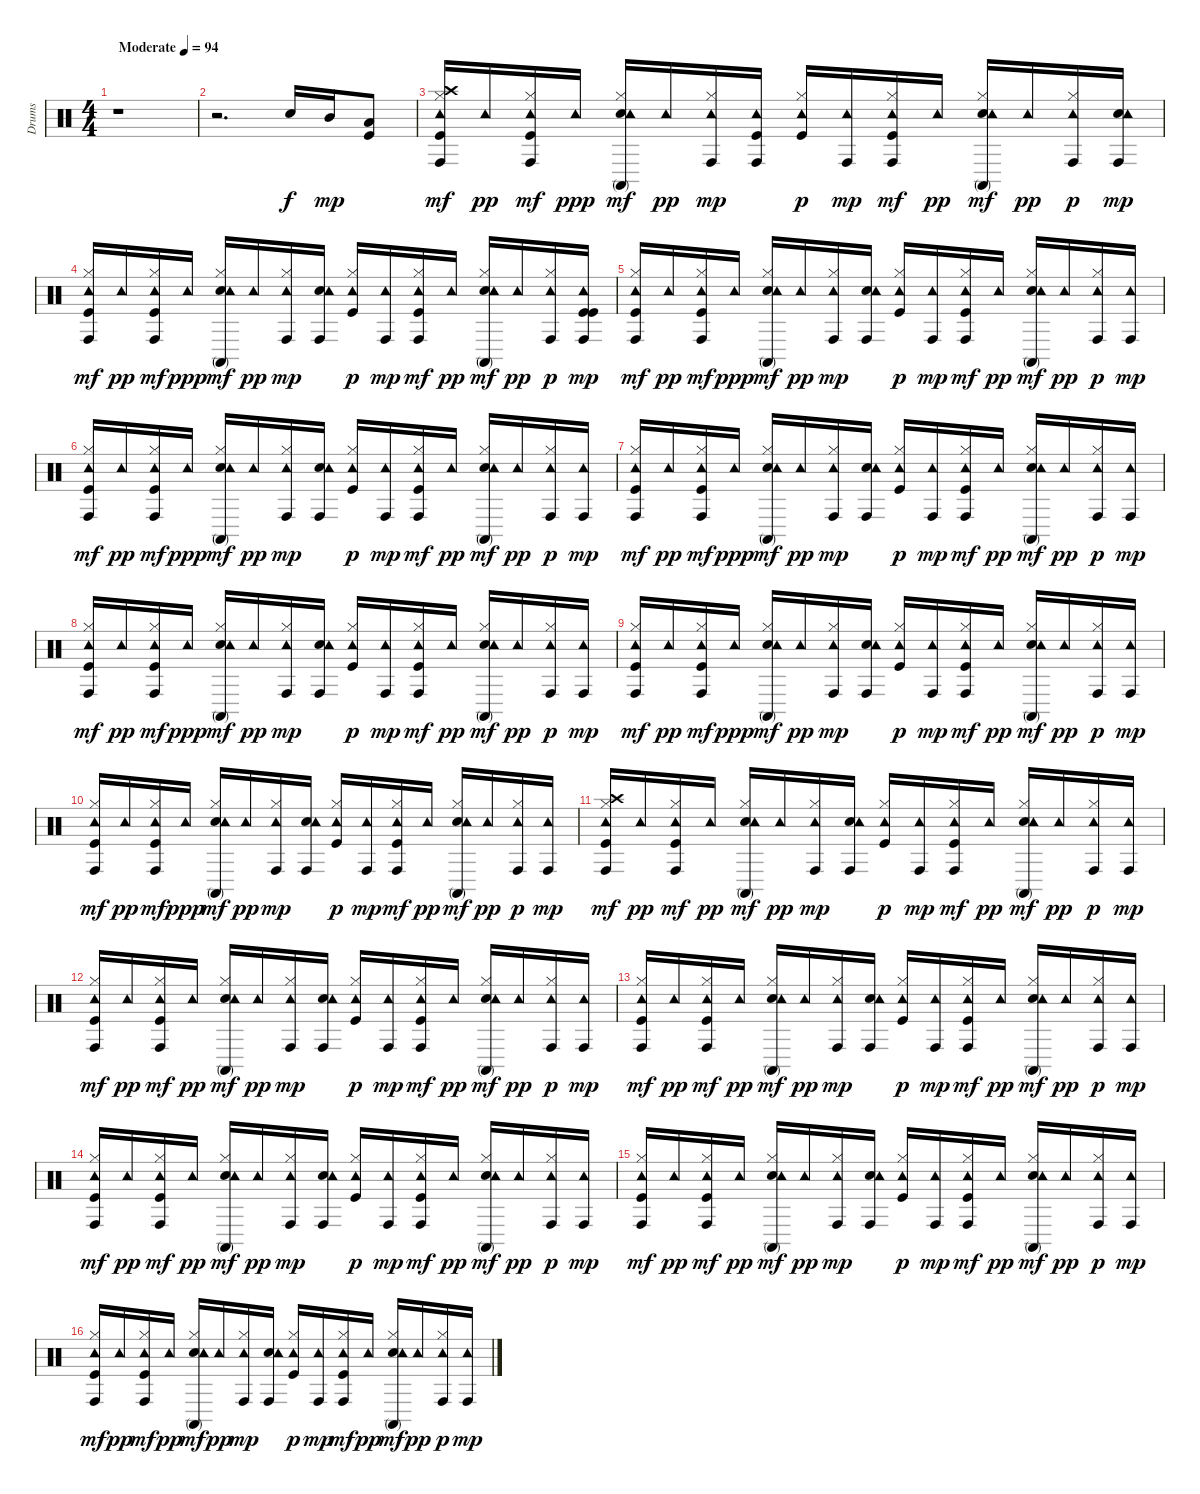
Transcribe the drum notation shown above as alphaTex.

\track ("Drums" "Drums") {instrument percussion}
\staff {score}
\articulation defaults
\ts (4 4)
\tempo (94 "Moderate")
\clef neutral
\ks c
r.1{dy f} |
r.2{d} "Electric Snare (hit)".16 "Mid Tom (hit)".16{dy mp} ("Kick (hit)" "Low Tom (hit)").8 |
("Kick (hit)" "Hi-Hat (closed)" "Crash high (hit)" "Tambourine (hit)" "Conga high (hit)").16{dy mf} "Tambourine (hit)".16{dy pp} ("Kick (hit)" "Hi-Hat (closed)" "Tambourine (hit)" "Conga high (hit)").16{dy mf} "Tambourine (hit)".16{dy ppp} ("Electric Snare (hit)" "Hi-Hat (closed)" "Tambourine (hit)" "Conga high (mute)").16{dy mf} "Tambourine (hit)".16{dy pp} ("Hi-Hat (closed)" "Tambourine (hit)" "Conga high (hit)").16{dy mp} ("Kick (hit)" "Tambourine (hit)" "Conga high (hit)").16 ("Kick (hit)" "Hi-Hat (closed)" "Tambourine (hit)").16{dy p} ("Tambourine (hit)" "Conga high (hit)").16{dy mp} ("Kick (hit)" "Hi-Hat (closed)" "Tambourine (hit)" "Conga high (hit)").16{dy mf} "Tambourine (hit)".16{dy pp} ("Electric Snare (hit)" "Hi-Hat (closed)" "Tambourine (hit)" "Conga high (mute)").16{dy mf} "Tambourine (hit)".16{dy pp} ("Hi-Hat (closed)" "Tambourine (hit)" "Conga high (hit)").16{dy p} ("Electric Snare (hit)" "Tambourine (hit)" "Conga high (hit)").16{dy mp} |
("Kick (hit)" "Hi-Hat (closed)" "Tambourine (hit)" "Conga high (hit)").16{dy mf} "Tambourine (hit)".16{dy pp} ("Kick (hit)" "Hi-Hat (closed)" "Tambourine (hit)" "Conga high (hit)").16{dy mf} "Tambourine (hit)".16{dy ppp} ("Electric Snare (hit)" "Hi-Hat (closed)" "Tambourine (hit)" "Conga high (mute)").16{dy mf} "Tambourine (hit)".16{dy pp} ("Hi-Hat (closed)" "Tambourine (hit)" "Conga high (hit)").16{dy mp} ("Electric Snare (hit)" "Tambourine (hit)" "Conga high (hit)").16 ("Kick (hit)" "Hi-Hat (closed)" "Tambourine (hit)").16{dy p} ("Tambourine (hit)" "Conga high (hit)").16{dy mp} ("Kick (hit)" "Hi-Hat (closed)" "Tambourine (hit)" "Conga high (hit)").16{dy mf} "Tambourine (hit)".16{dy pp} ("Electric Snare (hit)" "Hi-Hat (closed)" "Tambourine (hit)" "Conga high (mute)").16{dy mf} "Tambourine (hit)".16{dy pp} ("Hi-Hat (closed)" "Tambourine (hit)" "Conga high (hit)").16{dy p} ("Kick (hit)" "Kick (hit)" "Tambourine (hit)" "Conga high (hit)").16{dy mp} |
("Kick (hit)" "Hi-Hat (closed)" "Tambourine (hit)" "Conga high (hit)").16{dy mf} "Tambourine (hit)".16{dy pp} ("Kick (hit)" "Hi-Hat (closed)" "Tambourine (hit)" "Conga high (hit)").16{dy mf} "Tambourine (hit)".16{dy ppp} ("Electric Snare (hit)" "Hi-Hat (closed)" "Tambourine (hit)" "Conga high (mute)").16{dy mf} "Tambourine (hit)".16{dy pp} ("Hi-Hat (closed)" "Tambourine (hit)" "Conga high (hit)").16{dy mp} ("Electric Snare (hit)" "Tambourine (hit)" "Conga high (hit)").16 ("Kick (hit)" "Hi-Hat (closed)" "Tambourine (hit)").16{dy p} ("Tambourine (hit)" "Conga high (hit)").16{dy mp} ("Kick (hit)" "Hi-Hat (closed)" "Tambourine (hit)" "Conga high (hit)").16{dy mf} "Tambourine (hit)".16{dy pp} ("Electric Snare (hit)" "Hi-Hat (closed)" "Tambourine (hit)" "Conga high (mute)").16{dy mf} "Tambourine (hit)".16{dy pp} ("Hi-Hat (closed)" "Tambourine (hit)" "Conga high (hit)").16{dy p} ("Tambourine (hit)" "Conga high (hit)").16{dy mp} |
("Kick (hit)" "Hi-Hat (closed)" "Tambourine (hit)" "Conga high (hit)").16{dy mf} "Tambourine (hit)".16{dy pp} ("Kick (hit)" "Hi-Hat (closed)" "Tambourine (hit)" "Conga high (hit)").16{dy mf} "Tambourine (hit)".16{dy ppp} ("Electric Snare (hit)" "Hi-Hat (closed)" "Tambourine (hit)" "Conga high (mute)").16{dy mf} "Tambourine (hit)".16{dy pp} ("Hi-Hat (closed)" "Tambourine (hit)" "Conga high (hit)").16{dy mp} ("Electric Snare (hit)" "Tambourine (hit)" "Conga high (hit)").16 ("Kick (hit)" "Hi-Hat (closed)" "Tambourine (hit)").16{dy p} ("Tambourine (hit)" "Conga high (hit)").16{dy mp} ("Kick (hit)" "Hi-Hat (closed)" "Tambourine (hit)" "Conga high (hit)").16{dy mf} "Tambourine (hit)".16{dy pp} ("Electric Snare (hit)" "Hi-Hat (closed)" "Tambourine (hit)" "Conga high (mute)").16{dy mf} "Tambourine (hit)".16{dy pp} ("Hi-Hat (closed)" "Tambourine (hit)" "Conga high (hit)").16{dy p} ("Tambourine (hit)" "Conga high (hit)").16{dy mp} |
("Kick (hit)" "Hi-Hat (closed)" "Tambourine (hit)" "Conga high (hit)").16{dy mf} "Tambourine (hit)".16{dy pp} ("Kick (hit)" "Hi-Hat (closed)" "Tambourine (hit)" "Conga high (hit)").16{dy mf} "Tambourine (hit)".16{dy ppp} ("Electric Snare (hit)" "Hi-Hat (closed)" "Tambourine (hit)" "Conga high (mute)").16{dy mf} "Tambourine (hit)".16{dy pp} ("Hi-Hat (closed)" "Tambourine (hit)" "Conga high (hit)").16{dy mp} ("Electric Snare (hit)" "Tambourine (hit)" "Conga high (hit)").16 ("Kick (hit)" "Hi-Hat (closed)" "Tambourine (hit)").16{dy p} ("Tambourine (hit)" "Conga high (hit)").16{dy mp} ("Kick (hit)" "Hi-Hat (closed)" "Tambourine (hit)" "Conga high (hit)").16{dy mf} "Tambourine (hit)".16{dy pp} ("Electric Snare (hit)" "Hi-Hat (closed)" "Tambourine (hit)" "Conga high (mute)").16{dy mf} "Tambourine (hit)".16{dy pp} ("Hi-Hat (closed)" "Tambourine (hit)" "Conga high (hit)").16{dy p} ("Tambourine (hit)" "Conga high (hit)").16{dy mp} |
("Kick (hit)" "Hi-Hat (closed)" "Tambourine (hit)" "Conga high (hit)").16{dy mf} "Tambourine (hit)".16{dy pp} ("Kick (hit)" "Hi-Hat (closed)" "Tambourine (hit)" "Conga high (hit)").16{dy mf} "Tambourine (hit)".16{dy ppp} ("Electric Snare (hit)" "Hi-Hat (closed)" "Tambourine (hit)" "Conga high (mute)").16{dy mf} "Tambourine (hit)".16{dy pp} ("Hi-Hat (closed)" "Tambourine (hit)" "Conga high (hit)").16{dy mp} ("Electric Snare (hit)" "Tambourine (hit)" "Conga high (hit)").16 ("Kick (hit)" "Hi-Hat (closed)" "Tambourine (hit)").16{dy p} ("Tambourine (hit)" "Conga high (hit)").16{dy mp} ("Kick (hit)" "Hi-Hat (closed)" "Tambourine (hit)" "Conga high (hit)").16{dy mf} "Tambourine (hit)".16{dy pp} ("Electric Snare (hit)" "Hi-Hat (closed)" "Tambourine (hit)" "Conga high (mute)").16{dy mf} "Tambourine (hit)".16{dy pp} ("Hi-Hat (closed)" "Tambourine (hit)" "Conga high (hit)").16{dy p} ("Tambourine (hit)" "Conga high (hit)").16{dy mp} |
("Kick (hit)" "Hi-Hat (closed)" "Tambourine (hit)" "Conga high (hit)").16{dy mf} "Tambourine (hit)".16{dy pp} ("Kick (hit)" "Hi-Hat (closed)" "Tambourine (hit)" "Conga high (hit)").16{dy mf} "Tambourine (hit)".16{dy ppp} ("Electric Snare (hit)" "Hi-Hat (closed)" "Tambourine (hit)" "Conga high (mute)").16{dy mf} "Tambourine (hit)".16{dy pp} ("Hi-Hat (closed)" "Tambourine (hit)" "Conga high (hit)").16{dy mp} ("Electric Snare (hit)" "Tambourine (hit)" "Conga high (hit)").16 ("Kick (hit)" "Hi-Hat (closed)" "Tambourine (hit)").16{dy p} ("Tambourine (hit)" "Conga high (hit)").16{dy mp} ("Kick (hit)" "Hi-Hat (closed)" "Tambourine (hit)" "Conga high (hit)").16{dy mf} "Tambourine (hit)".16{dy pp} ("Electric Snare (hit)" "Hi-Hat (closed)" "Tambourine (hit)" "Conga high (mute)").16{dy mf} "Tambourine (hit)".16{dy pp} ("Hi-Hat (closed)" "Tambourine (hit)" "Conga high (hit)").16{dy p} ("Tambourine (hit)" "Conga high (hit)").16{dy mp} |
("Kick (hit)" "Hi-Hat (closed)" "Tambourine (hit)" "Conga high (hit)").16{dy mf} "Tambourine (hit)".16{dy pp} ("Kick (hit)" "Hi-Hat (closed)" "Tambourine (hit)" "Conga high (hit)").16{dy mf} "Tambourine (hit)".16{dy ppp} ("Electric Snare (hit)" "Hi-Hat (closed)" "Tambourine (hit)" "Conga high (mute)").16{dy mf} "Tambourine (hit)".16{dy pp} ("Hi-Hat (closed)" "Tambourine (hit)" "Conga high (hit)").16{dy mp} ("Electric Snare (hit)" "Tambourine (hit)" "Conga high (hit)").16 ("Kick (hit)" "Hi-Hat (closed)" "Tambourine (hit)").16{dy p} ("Tambourine (hit)" "Conga high (hit)").16{dy mp} ("Kick (hit)" "Hi-Hat (closed)" "Tambourine (hit)" "Conga high (hit)").16{dy mf} "Tambourine (hit)".16{dy pp} ("Electric Snare (hit)" "Hi-Hat (closed)" "Tambourine (hit)" "Conga high (mute)").16{dy mf} "Tambourine (hit)".16{dy pp} ("Hi-Hat (closed)" "Tambourine (hit)" "Conga high (hit)").16{dy p} ("Tambourine (hit)" "Conga high (hit)").16{dy mp} |
("Kick (hit)" "Hi-Hat (closed)" "Crash high (hit)" "Tambourine (hit)" "Conga high (hit)").16{dy mf} "Tambourine (hit)".16{dy pp} ("Kick (hit)" "Hi-Hat (closed)" "Tambourine (hit)" "Conga high (hit)").16{dy mf} "Tambourine (hit)".16{dy pp} ("Electric Snare (hit)" "Hi-Hat (closed)" "Tambourine (hit)" "Conga high (mute)").16{dy mf} "Tambourine (hit)".16{dy pp} ("Hi-Hat (closed)" "Tambourine (hit)" "Conga high (hit)").16{dy mp} ("Electric Snare (hit)" "Tambourine (hit)" "Conga high (hit)").16 ("Kick (hit)" "Hi-Hat (closed)" "Tambourine (hit)").16{dy p} ("Tambourine (hit)" "Conga high (hit)").16{dy mp} ("Kick (hit)" "Hi-Hat (closed)" "Tambourine (hit)" "Conga high (hit)").16{dy mf} "Tambourine (hit)".16{dy pp} ("Electric Snare (hit)" "Hi-Hat (closed)" "Tambourine (hit)" "Conga high (mute)").16{dy mf} "Tambourine (hit)".16{dy pp} ("Hi-Hat (closed)" "Tambourine (hit)" "Conga high (hit)").16{dy p} ("Tambourine (hit)" "Conga high (hit)").16{dy mp} |
("Kick (hit)" "Hi-Hat (closed)" "Tambourine (hit)" "Conga high (hit)").16{dy mf} "Tambourine (hit)".16{dy pp} ("Kick (hit)" "Hi-Hat (closed)" "Tambourine (hit)" "Conga high (hit)").16{dy mf} "Tambourine (hit)".16{dy pp} ("Electric Snare (hit)" "Hi-Hat (closed)" "Tambourine (hit)" "Conga high (mute)").16{dy mf} "Tambourine (hit)".16{dy pp} ("Hi-Hat (closed)" "Tambourine (hit)" "Conga high (hit)").16{dy mp} ("Electric Snare (hit)" "Tambourine (hit)" "Conga high (hit)").16 ("Kick (hit)" "Hi-Hat (closed)" "Tambourine (hit)").16{dy p} ("Tambourine (hit)" "Conga high (hit)").16{dy mp} ("Kick (hit)" "Hi-Hat (closed)" "Tambourine (hit)" "Conga high (hit)").16{dy mf} "Tambourine (hit)".16{dy pp} ("Electric Snare (hit)" "Hi-Hat (closed)" "Tambourine (hit)" "Conga high (mute)").16{dy mf} "Tambourine (hit)".16{dy pp} ("Hi-Hat (closed)" "Tambourine (hit)" "Conga high (hit)").16{dy p} ("Tambourine (hit)" "Conga high (hit)").16{dy mp} |
("Kick (hit)" "Hi-Hat (closed)" "Tambourine (hit)" "Conga high (hit)").16{dy mf} "Tambourine (hit)".16{dy pp} ("Kick (hit)" "Hi-Hat (closed)" "Tambourine (hit)" "Conga high (hit)").16{dy mf} "Tambourine (hit)".16{dy pp} ("Electric Snare (hit)" "Hi-Hat (closed)" "Tambourine (hit)" "Conga high (mute)").16{dy mf} "Tambourine (hit)".16{dy pp} ("Hi-Hat (closed)" "Tambourine (hit)" "Conga high (hit)").16{dy mp} ("Electric Snare (hit)" "Tambourine (hit)" "Conga high (hit)").16 ("Kick (hit)" "Hi-Hat (closed)" "Tambourine (hit)").16{dy p} ("Tambourine (hit)" "Conga high (hit)").16{dy mp} ("Kick (hit)" "Hi-Hat (closed)" "Tambourine (hit)" "Conga high (hit)").16{dy mf} "Tambourine (hit)".16{dy pp} ("Electric Snare (hit)" "Hi-Hat (closed)" "Tambourine (hit)" "Conga high (mute)").16{dy mf} "Tambourine (hit)".16{dy pp} ("Hi-Hat (closed)" "Tambourine (hit)" "Conga high (hit)").16{dy p} ("Tambourine (hit)" "Conga high (hit)").16{dy mp} |
("Kick (hit)" "Hi-Hat (closed)" "Tambourine (hit)" "Conga high (hit)").16{dy mf} "Tambourine (hit)".16{dy pp} ("Kick (hit)" "Hi-Hat (closed)" "Tambourine (hit)" "Conga high (hit)").16{dy mf} "Tambourine (hit)".16{dy pp} ("Electric Snare (hit)" "Hi-Hat (closed)" "Tambourine (hit)" "Conga high (mute)").16{dy mf} "Tambourine (hit)".16{dy pp} ("Hi-Hat (closed)" "Tambourine (hit)" "Conga high (hit)").16{dy mp} ("Electric Snare (hit)" "Tambourine (hit)" "Conga high (hit)").16 ("Kick (hit)" "Hi-Hat (closed)" "Tambourine (hit)").16{dy p} ("Tambourine (hit)" "Conga high (hit)").16{dy mp} ("Kick (hit)" "Hi-Hat (closed)" "Tambourine (hit)" "Conga high (hit)").16{dy mf} "Tambourine (hit)".16{dy pp} ("Electric Snare (hit)" "Hi-Hat (closed)" "Tambourine (hit)" "Conga high (mute)").16{dy mf} "Tambourine (hit)".16{dy pp} ("Hi-Hat (closed)" "Tambourine (hit)" "Conga high (hit)").16{dy p} ("Tambourine (hit)" "Conga high (hit)").16{dy mp} |
("Kick (hit)" "Hi-Hat (closed)" "Tambourine (hit)" "Conga high (hit)").16{dy mf} "Tambourine (hit)".16{dy pp} ("Kick (hit)" "Hi-Hat (closed)" "Tambourine (hit)" "Conga high (hit)").16{dy mf} "Tambourine (hit)".16{dy pp} ("Electric Snare (hit)" "Hi-Hat (closed)" "Tambourine (hit)" "Conga high (mute)").16{dy mf} "Tambourine (hit)".16{dy pp} ("Hi-Hat (closed)" "Tambourine (hit)" "Conga high (hit)").16{dy mp} ("Electric Snare (hit)" "Tambourine (hit)" "Conga high (hit)").16 ("Kick (hit)" "Hi-Hat (closed)" "Tambourine (hit)").16{dy p} ("Tambourine (hit)" "Conga high (hit)").16{dy mp} ("Kick (hit)" "Hi-Hat (closed)" "Tambourine (hit)" "Conga high (hit)").16{dy mf} "Tambourine (hit)".16{dy pp} ("Electric Snare (hit)" "Hi-Hat (closed)" "Tambourine (hit)" "Conga high (mute)").16{dy mf} "Tambourine (hit)".16{dy pp} ("Hi-Hat (closed)" "Tambourine (hit)" "Conga high (hit)").16{dy p} ("Tambourine (hit)" "Conga high (hit)").16{dy mp} |
("Kick (hit)" "Hi-Hat (closed)" "Tambourine (hit)" "Conga high (hit)").16{dy mf} "Tambourine (hit)".16{dy pp} ("Kick (hit)" "Hi-Hat (closed)" "Tambourine (hit)" "Conga high (hit)").16{dy mf} "Tambourine (hit)".16{dy pp} ("Electric Snare (hit)" "Hi-Hat (closed)" "Tambourine (hit)" "Conga high (mute)").16{dy mf} "Tambourine (hit)".16{dy pp} ("Hi-Hat (closed)" "Tambourine (hit)" "Conga high (hit)").16{dy mp} ("Electric Snare (hit)" "Tambourine (hit)" "Conga high (hit)").16 ("Kick (hit)" "Hi-Hat (closed)" "Tambourine (hit)").16{dy p} ("Tambourine (hit)" "Conga high (hit)").16{dy mp} ("Kick (hit)" "Hi-Hat (closed)" "Tambourine (hit)" "Conga high (hit)").16{dy mf} "Tambourine (hit)".16{dy pp} ("Electric Snare (hit)" "Hi-Hat (closed)" "Tambourine (hit)" "Conga high (mute)").16{dy mf} "Tambourine (hit)".16{dy pp} ("Hi-Hat (closed)" "Tambourine (hit)" "Conga high (hit)").16{dy p} ("Tambourine (hit)" "Conga high (hit)").16{dy mp}
